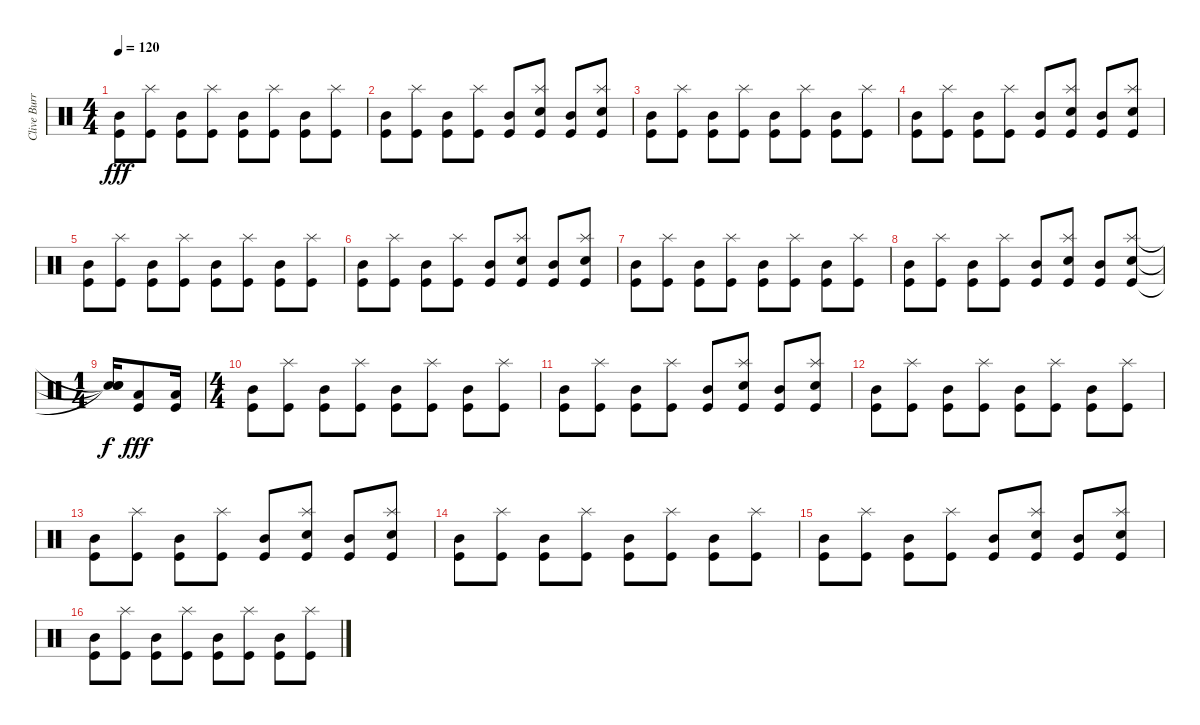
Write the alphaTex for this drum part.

\track ("Clive Burr" "Clive Burr") {instrument percussion}
\staff {score}
\articulation defaults
\ts (4 4)
\tempo 120
\clef neutral
\ks c
("Kick (hit)" "Mid Tom (hit)").8{dy fff} ("Kick (hit)" "Splash (hit)").8 ("Kick (hit)" "Mid Tom (hit)").8 ("Kick (hit)" "Splash (hit)").8 ("Kick (hit)" "Mid Tom (hit)").8 ("Kick (hit)" "Splash (hit)").8 ("Kick (hit)" "Mid Tom (hit)").8 ("Kick (hit)" "Splash (hit)").8 |
("Kick (hit)" "Mid Tom (hit)").8 ("Kick (hit)" "Splash (hit)").8 ("Kick (hit)" "Mid Tom (hit)").8 ("Kick (hit)" "Splash (hit)").8 ("Kick (hit)" "Mid Tom (hit)").8 ("Kick (hit)" "Splash (hit)" "Electric Snare (hit)").8 ("Kick (hit)" "Mid Tom (hit)").8 ("Kick (hit)" "Splash (hit)" "Electric Snare (hit)").8 |
("Kick (hit)" "Mid Tom (hit)").8 ("Kick (hit)" "Splash (hit)").8 ("Kick (hit)" "Mid Tom (hit)").8 ("Kick (hit)" "Splash (hit)").8 ("Kick (hit)" "Mid Tom (hit)").8 ("Kick (hit)" "Splash (hit)").8 ("Kick (hit)" "Mid Tom (hit)").8 ("Kick (hit)" "Splash (hit)").8 |
("Kick (hit)" "Mid Tom (hit)").8 ("Kick (hit)" "Splash (hit)").8 ("Kick (hit)" "Mid Tom (hit)").8 ("Kick (hit)" "Splash (hit)").8 ("Kick (hit)" "Mid Tom (hit)").8 ("Kick (hit)" "Splash (hit)" "Electric Snare (hit)").8 ("Kick (hit)" "Mid Tom (hit)").8 ("Kick (hit)" "Splash (hit)" "Electric Snare (hit)").8 |
("Kick (hit)" "Mid Tom (hit)").8 ("Kick (hit)" "Splash (hit)").8 ("Kick (hit)" "Mid Tom (hit)").8 ("Kick (hit)" "Splash (hit)").8 ("Kick (hit)" "Mid Tom (hit)").8 ("Kick (hit)" "Splash (hit)").8 ("Kick (hit)" "Mid Tom (hit)").8 ("Kick (hit)" "Splash (hit)").8 |
("Kick (hit)" "Mid Tom (hit)").8 ("Kick (hit)" "Splash (hit)").8 ("Kick (hit)" "Mid Tom (hit)").8 ("Kick (hit)" "Splash (hit)").8 ("Kick (hit)" "Mid Tom (hit)").8 ("Kick (hit)" "Splash (hit)" "Electric Snare (hit)").8 ("Kick (hit)" "Mid Tom (hit)").8 ("Kick (hit)" "Splash (hit)" "Electric Snare (hit)").8 |
("Kick (hit)" "Mid Tom (hit)").8 ("Kick (hit)" "Splash (hit)").8 ("Kick (hit)" "Mid Tom (hit)").8 ("Kick (hit)" "Splash (hit)").8 ("Kick (hit)" "Mid Tom (hit)").8 ("Kick (hit)" "Splash (hit)").8 ("Kick (hit)" "Mid Tom (hit)").8 ("Kick (hit)" "Splash (hit)").8 |
("Kick (hit)" "Mid Tom (hit)").8 ("Kick (hit)" "Splash (hit)").8 ("Kick (hit)" "Mid Tom (hit)").8 ("Kick (hit)" "Splash (hit)").8 ("Kick (hit)" "Mid Tom (hit)").8 ("Kick (hit)" "Splash (hit)" "Electric Snare (hit)").8 ("Kick (hit)" "Mid Tom (hit)").8 ("Kick (hit)" "Splash (hit)" "Electric Snare (hit)").8 |
\ts (1 4)
("Snare (hit)"{t} "Snare (hit)"{t} "Snare (hit)"{t}).16{dy f} ("Kick (hit)" "Low Floor Tom (hit)").8{dy fff} ("Kick (hit)" "Low Floor Tom (hit)").16 |
\ts (4 4)
("Kick (hit)" "Mid Tom (hit)").8 ("Kick (hit)" "Splash (hit)").8 ("Kick (hit)" "Mid Tom (hit)").8 ("Kick (hit)" "Splash (hit)").8 ("Kick (hit)" "Mid Tom (hit)").8 ("Kick (hit)" "Splash (hit)").8 ("Kick (hit)" "Mid Tom (hit)").8 ("Kick (hit)" "Splash (hit)").8 |
("Kick (hit)" "Mid Tom (hit)").8 ("Kick (hit)" "Splash (hit)").8 ("Kick (hit)" "Mid Tom (hit)").8 ("Kick (hit)" "Splash (hit)").8 ("Kick (hit)" "Mid Tom (hit)").8 ("Kick (hit)" "Splash (hit)" "Electric Snare (hit)").8 ("Kick (hit)" "Mid Tom (hit)").8 ("Kick (hit)" "Splash (hit)" "Electric Snare (hit)").8 |
("Kick (hit)" "Mid Tom (hit)").8 ("Kick (hit)" "Splash (hit)").8 ("Kick (hit)" "Mid Tom (hit)").8 ("Kick (hit)" "Splash (hit)").8 ("Kick (hit)" "Mid Tom (hit)").8 ("Kick (hit)" "Splash (hit)").8 ("Kick (hit)" "Mid Tom (hit)").8 ("Kick (hit)" "Splash (hit)").8 |
("Kick (hit)" "Mid Tom (hit)").8 ("Kick (hit)" "Splash (hit)").8 ("Kick (hit)" "Mid Tom (hit)").8 ("Kick (hit)" "Splash (hit)").8 ("Kick (hit)" "Mid Tom (hit)").8 ("Kick (hit)" "Splash (hit)" "Electric Snare (hit)").8 ("Kick (hit)" "Mid Tom (hit)").8 ("Kick (hit)" "Splash (hit)" "Electric Snare (hit)").8 |
("Kick (hit)" "Mid Tom (hit)").8 ("Kick (hit)" "Splash (hit)").8 ("Kick (hit)" "Mid Tom (hit)").8 ("Kick (hit)" "Splash (hit)").8 ("Kick (hit)" "Mid Tom (hit)").8 ("Kick (hit)" "Splash (hit)").8 ("Kick (hit)" "Mid Tom (hit)").8 ("Kick (hit)" "Splash (hit)").8 |
("Kick (hit)" "Mid Tom (hit)").8 ("Kick (hit)" "Splash (hit)").8 ("Kick (hit)" "Mid Tom (hit)").8 ("Kick (hit)" "Splash (hit)").8 ("Kick (hit)" "Mid Tom (hit)").8 ("Kick (hit)" "Splash (hit)" "Electric Snare (hit)").8 ("Kick (hit)" "Mid Tom (hit)").8 ("Kick (hit)" "Splash (hit)" "Electric Snare (hit)").8 |
("Kick (hit)" "Mid Tom (hit)").8 ("Kick (hit)" "Splash (hit)").8 ("Kick (hit)" "Mid Tom (hit)").8 ("Kick (hit)" "Splash (hit)").8 ("Kick (hit)" "Mid Tom (hit)").8 ("Kick (hit)" "Splash (hit)").8 ("Kick (hit)" "Mid Tom (hit)").8 ("Kick (hit)" "Splash (hit)").8
